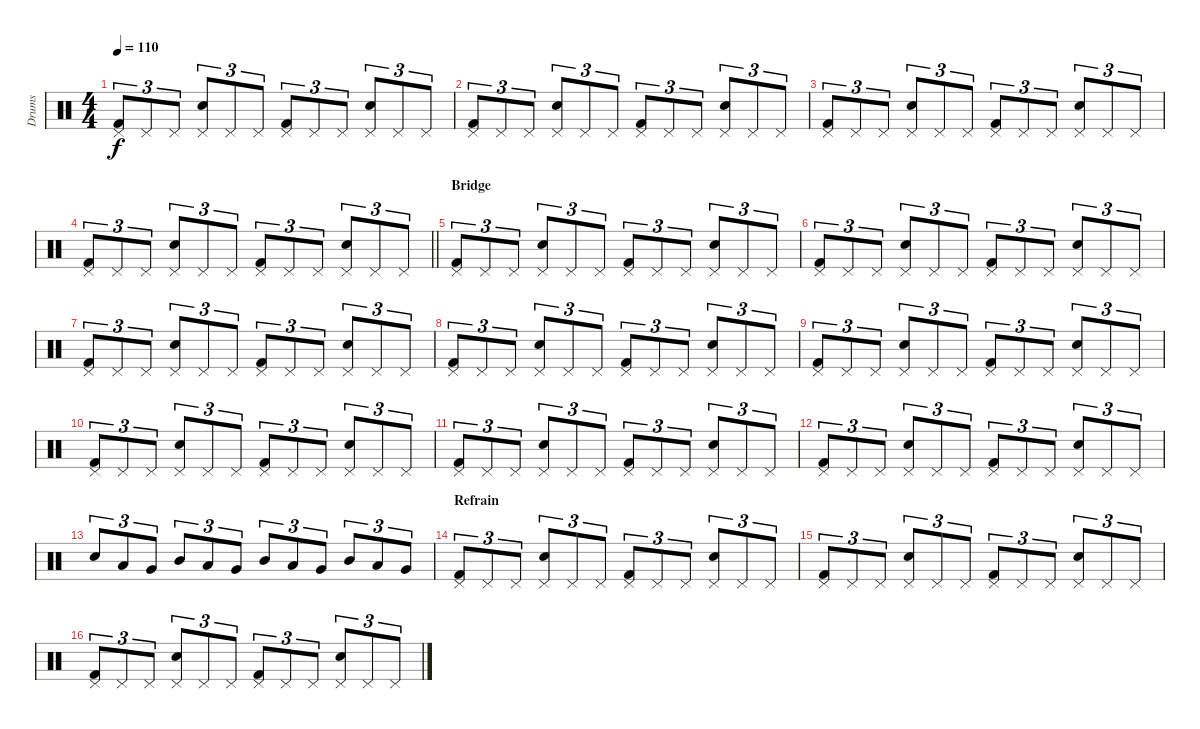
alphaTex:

\track ("Drums" "Drums") {instrument percussion}
\staff {score}
\articulation defaults
\ts (4 4)
\tempo 110
\clef neutral
\ks c
("Pedal Hi-Hat (hit)" "Kick (hit) 2").8{tu (3 2) dy f} "Pedal Hi-Hat (hit)".8{tu (3 2)} "Pedal Hi-Hat (hit)".8{tu (3 2)} ("Pedal Hi-Hat (hit)" "Electric Snare (hit)").8{tu (3 2)} "Pedal Hi-Hat (hit)".8{tu (3 2)} "Pedal Hi-Hat (hit)".8{tu (3 2)} ("Pedal Hi-Hat (hit)" "Kick (hit) 2").8{tu (3 2)} "Pedal Hi-Hat (hit)".8{tu (3 2)} "Pedal Hi-Hat (hit)".8{tu (3 2)} ("Pedal Hi-Hat (hit)" "Electric Snare (hit)").8{tu (3 2)} "Pedal Hi-Hat (hit)".8{tu (3 2)} "Pedal Hi-Hat (hit)".8{tu (3 2)} |
("Pedal Hi-Hat (hit)" "Kick (hit) 2").8{tu (3 2)} "Pedal Hi-Hat (hit)".8{tu (3 2)} "Pedal Hi-Hat (hit)".8{tu (3 2)} ("Pedal Hi-Hat (hit)" "Electric Snare (hit)").8{tu (3 2)} "Pedal Hi-Hat (hit)".8{tu (3 2)} "Pedal Hi-Hat (hit)".8{tu (3 2)} ("Pedal Hi-Hat (hit)" "Kick (hit) 2").8{tu (3 2)} "Pedal Hi-Hat (hit)".8{tu (3 2)} "Pedal Hi-Hat (hit)".8{tu (3 2)} ("Pedal Hi-Hat (hit)" "Electric Snare (hit)").8{tu (3 2)} "Pedal Hi-Hat (hit)".8{tu (3 2)} "Pedal Hi-Hat (hit)".8{tu (3 2)} |
("Pedal Hi-Hat (hit)" "Kick (hit) 2").8{tu (3 2)} "Pedal Hi-Hat (hit)".8{tu (3 2)} "Pedal Hi-Hat (hit)".8{tu (3 2)} ("Pedal Hi-Hat (hit)" "Electric Snare (hit)").8{tu (3 2)} "Pedal Hi-Hat (hit)".8{tu (3 2)} "Pedal Hi-Hat (hit)".8{tu (3 2)} ("Pedal Hi-Hat (hit)" "Kick (hit) 2").8{tu (3 2)} "Pedal Hi-Hat (hit)".8{tu (3 2)} "Pedal Hi-Hat (hit)".8{tu (3 2)} ("Pedal Hi-Hat (hit)" "Electric Snare (hit)").8{tu (3 2)} "Pedal Hi-Hat (hit)".8{tu (3 2)} "Pedal Hi-Hat (hit)".8{tu (3 2)} |
\barLineRight lightlight
("Pedal Hi-Hat (hit)" "Kick (hit) 2").8{tu (3 2)} "Pedal Hi-Hat (hit)".8{tu (3 2)} "Pedal Hi-Hat (hit)".8{tu (3 2)} ("Pedal Hi-Hat (hit)" "Electric Snare (hit)").8{tu (3 2)} "Pedal Hi-Hat (hit)".8{tu (3 2)} "Pedal Hi-Hat (hit)".8{tu (3 2)} ("Pedal Hi-Hat (hit)" "Kick (hit) 2").8{tu (3 2)} "Pedal Hi-Hat (hit)".8{tu (3 2)} "Pedal Hi-Hat (hit)".8{tu (3 2)} ("Pedal Hi-Hat (hit)" "Electric Snare (hit)").8{tu (3 2)} "Pedal Hi-Hat (hit)".8{tu (3 2)} "Pedal Hi-Hat (hit)".8{tu (3 2)} |
\section ("" "Bridge")
("Pedal Hi-Hat (hit)" "Kick (hit) 2").8{tu (3 2)} "Pedal Hi-Hat (hit)".8{tu (3 2)} "Pedal Hi-Hat (hit)".8{tu (3 2)} ("Pedal Hi-Hat (hit)" "Electric Snare (hit)").8{tu (3 2)} "Pedal Hi-Hat (hit)".8{tu (3 2)} "Pedal Hi-Hat (hit)".8{tu (3 2)} ("Pedal Hi-Hat (hit)" "Kick (hit) 2").8{tu (3 2)} "Pedal Hi-Hat (hit)".8{tu (3 2)} "Pedal Hi-Hat (hit)".8{tu (3 2)} ("Pedal Hi-Hat (hit)" "Electric Snare (hit)").8{tu (3 2)} "Pedal Hi-Hat (hit)".8{tu (3 2)} "Pedal Hi-Hat (hit)".8{tu (3 2)} |
("Pedal Hi-Hat (hit)" "Kick (hit) 2").8{tu (3 2)} "Pedal Hi-Hat (hit)".8{tu (3 2)} "Pedal Hi-Hat (hit)".8{tu (3 2)} ("Pedal Hi-Hat (hit)" "Electric Snare (hit)").8{tu (3 2)} "Pedal Hi-Hat (hit)".8{tu (3 2)} "Pedal Hi-Hat (hit)".8{tu (3 2)} ("Pedal Hi-Hat (hit)" "Kick (hit) 2").8{tu (3 2)} "Pedal Hi-Hat (hit)".8{tu (3 2)} "Pedal Hi-Hat (hit)".8{tu (3 2)} ("Pedal Hi-Hat (hit)" "Electric Snare (hit)").8{tu (3 2)} "Pedal Hi-Hat (hit)".8{tu (3 2)} "Pedal Hi-Hat (hit)".8{tu (3 2)} |
("Pedal Hi-Hat (hit)" "Kick (hit) 2").8{tu (3 2)} "Pedal Hi-Hat (hit)".8{tu (3 2)} "Pedal Hi-Hat (hit)".8{tu (3 2)} ("Pedal Hi-Hat (hit)" "Electric Snare (hit)").8{tu (3 2)} "Pedal Hi-Hat (hit)".8{tu (3 2)} "Pedal Hi-Hat (hit)".8{tu (3 2)} ("Pedal Hi-Hat (hit)" "Kick (hit) 2").8{tu (3 2)} "Pedal Hi-Hat (hit)".8{tu (3 2)} "Pedal Hi-Hat (hit)".8{tu (3 2)} ("Pedal Hi-Hat (hit)" "Electric Snare (hit)").8{tu (3 2)} "Pedal Hi-Hat (hit)".8{tu (3 2)} "Pedal Hi-Hat (hit)".8{tu (3 2)} |
("Pedal Hi-Hat (hit)" "Kick (hit) 2").8{tu (3 2)} "Pedal Hi-Hat (hit)".8{tu (3 2)} "Pedal Hi-Hat (hit)".8{tu (3 2)} ("Pedal Hi-Hat (hit)" "Electric Snare (hit)").8{tu (3 2)} "Pedal Hi-Hat (hit)".8{tu (3 2)} "Pedal Hi-Hat (hit)".8{tu (3 2)} ("Pedal Hi-Hat (hit)" "Kick (hit) 2").8{tu (3 2)} "Pedal Hi-Hat (hit)".8{tu (3 2)} "Pedal Hi-Hat (hit)".8{tu (3 2)} ("Pedal Hi-Hat (hit)" "Electric Snare (hit)").8{tu (3 2)} "Pedal Hi-Hat (hit)".8{tu (3 2)} "Pedal Hi-Hat (hit)".8{tu (3 2)} |
("Pedal Hi-Hat (hit)" "Kick (hit) 2").8{tu (3 2)} "Pedal Hi-Hat (hit)".8{tu (3 2)} "Pedal Hi-Hat (hit)".8{tu (3 2)} ("Pedal Hi-Hat (hit)" "Electric Snare (hit)").8{tu (3 2)} "Pedal Hi-Hat (hit)".8{tu (3 2)} "Pedal Hi-Hat (hit)".8{tu (3 2)} ("Pedal Hi-Hat (hit)" "Kick (hit) 2").8{tu (3 2)} "Pedal Hi-Hat (hit)".8{tu (3 2)} "Pedal Hi-Hat (hit)".8{tu (3 2)} ("Pedal Hi-Hat (hit)" "Electric Snare (hit)").8{tu (3 2)} "Pedal Hi-Hat (hit)".8{tu (3 2)} "Pedal Hi-Hat (hit)".8{tu (3 2)} |
("Pedal Hi-Hat (hit)" "Kick (hit) 2").8{tu (3 2)} "Pedal Hi-Hat (hit)".8{tu (3 2)} "Pedal Hi-Hat (hit)".8{tu (3 2)} ("Pedal Hi-Hat (hit)" "Electric Snare (hit)").8{tu (3 2)} "Pedal Hi-Hat (hit)".8{tu (3 2)} "Pedal Hi-Hat (hit)".8{tu (3 2)} ("Pedal Hi-Hat (hit)" "Kick (hit) 2").8{tu (3 2)} "Pedal Hi-Hat (hit)".8{tu (3 2)} "Pedal Hi-Hat (hit)".8{tu (3 2)} ("Pedal Hi-Hat (hit)" "Electric Snare (hit)").8{tu (3 2)} "Pedal Hi-Hat (hit)".8{tu (3 2)} "Pedal Hi-Hat (hit)".8{tu (3 2)} |
("Pedal Hi-Hat (hit)" "Kick (hit) 2").8{tu (3 2)} "Pedal Hi-Hat (hit)".8{tu (3 2)} "Pedal Hi-Hat (hit)".8{tu (3 2)} ("Pedal Hi-Hat (hit)" "Electric Snare (hit)").8{tu (3 2)} "Pedal Hi-Hat (hit)".8{tu (3 2)} "Pedal Hi-Hat (hit)".8{tu (3 2)} ("Pedal Hi-Hat (hit)" "Kick (hit) 2").8{tu (3 2)} "Pedal Hi-Hat (hit)".8{tu (3 2)} "Pedal Hi-Hat (hit)".8{tu (3 2)} ("Pedal Hi-Hat (hit)" "Electric Snare (hit)").8{tu (3 2)} "Pedal Hi-Hat (hit)".8{tu (3 2)} "Pedal Hi-Hat (hit)".8{tu (3 2)} |
("Pedal Hi-Hat (hit)" "Kick (hit) 2").8{tu (3 2)} "Pedal Hi-Hat (hit)".8{tu (3 2)} "Pedal Hi-Hat (hit)".8{tu (3 2)} ("Pedal Hi-Hat (hit)" "Electric Snare (hit)").8{tu (3 2)} "Pedal Hi-Hat (hit)".8{tu (3 2)} "Pedal Hi-Hat (hit)".8{tu (3 2)} ("Pedal Hi-Hat (hit)" "Kick (hit) 2").8{tu (3 2)} "Pedal Hi-Hat (hit)".8{tu (3 2)} "Pedal Hi-Hat (hit)".8{tu (3 2)} ("Pedal Hi-Hat (hit)" "Electric Snare (hit)").8{tu (3 2)} "Pedal Hi-Hat (hit)".8{tu (3 2)} "Pedal Hi-Hat (hit)".8{tu (3 2)} |
"Electric Snare (hit)".8{tu (3 2)} "Low Tom (hit)".8{tu (3 2)} "Very Low Tom (hit)".8{tu (3 2)} "Mid Tom (hit)".8{tu (3 2)} "Low Tom (hit)".8{tu (3 2)} "Very Low Tom (hit)".8{tu (3 2)} "Mid Tom (hit)".8{tu (3 2)} "Low Tom (hit)".8{tu (3 2)} "Very Low Tom (hit)".8{tu (3 2)} "Mid Tom (hit)".8{tu (3 2)} "Low Tom (hit)".8{tu (3 2)} "Very Low Tom (hit)".8{tu (3 2)} |
\section ("" "Refrain")
("Pedal Hi-Hat (hit)" "Kick (hit) 2").8{tu (3 2)} "Pedal Hi-Hat (hit)".8{tu (3 2)} "Pedal Hi-Hat (hit)".8{tu (3 2)} ("Pedal Hi-Hat (hit)" "Electric Snare (hit)").8{tu (3 2)} "Pedal Hi-Hat (hit)".8{tu (3 2)} "Pedal Hi-Hat (hit)".8{tu (3 2)} ("Pedal Hi-Hat (hit)" "Kick (hit) 2").8{tu (3 2)} "Pedal Hi-Hat (hit)".8{tu (3 2)} "Pedal Hi-Hat (hit)".8{tu (3 2)} ("Pedal Hi-Hat (hit)" "Electric Snare (hit)").8{tu (3 2)} "Pedal Hi-Hat (hit)".8{tu (3 2)} "Pedal Hi-Hat (hit)".8{tu (3 2)} |
("Pedal Hi-Hat (hit)" "Kick (hit) 2").8{tu (3 2)} "Pedal Hi-Hat (hit)".8{tu (3 2)} "Pedal Hi-Hat (hit)".8{tu (3 2)} ("Pedal Hi-Hat (hit)" "Electric Snare (hit)").8{tu (3 2)} "Pedal Hi-Hat (hit)".8{tu (3 2)} "Pedal Hi-Hat (hit)".8{tu (3 2)} ("Pedal Hi-Hat (hit)" "Kick (hit) 2").8{tu (3 2)} "Pedal Hi-Hat (hit)".8{tu (3 2)} "Pedal Hi-Hat (hit)".8{tu (3 2)} ("Pedal Hi-Hat (hit)" "Electric Snare (hit)").8{tu (3 2)} "Pedal Hi-Hat (hit)".8{tu (3 2)} "Pedal Hi-Hat (hit)".8{tu (3 2)} |
("Pedal Hi-Hat (hit)" "Kick (hit) 2").8{tu (3 2)} "Pedal Hi-Hat (hit)".8{tu (3 2)} "Pedal Hi-Hat (hit)".8{tu (3 2)} ("Pedal Hi-Hat (hit)" "Electric Snare (hit)").8{tu (3 2)} "Pedal Hi-Hat (hit)".8{tu (3 2)} "Pedal Hi-Hat (hit)".8{tu (3 2)} ("Pedal Hi-Hat (hit)" "Kick (hit) 2").8{tu (3 2)} "Pedal Hi-Hat (hit)".8{tu (3 2)} "Pedal Hi-Hat (hit)".8{tu (3 2)} ("Pedal Hi-Hat (hit)" "Electric Snare (hit)").8{tu (3 2)} "Pedal Hi-Hat (hit)".8{tu (3 2)} "Pedal Hi-Hat (hit)".8{tu (3 2)}
